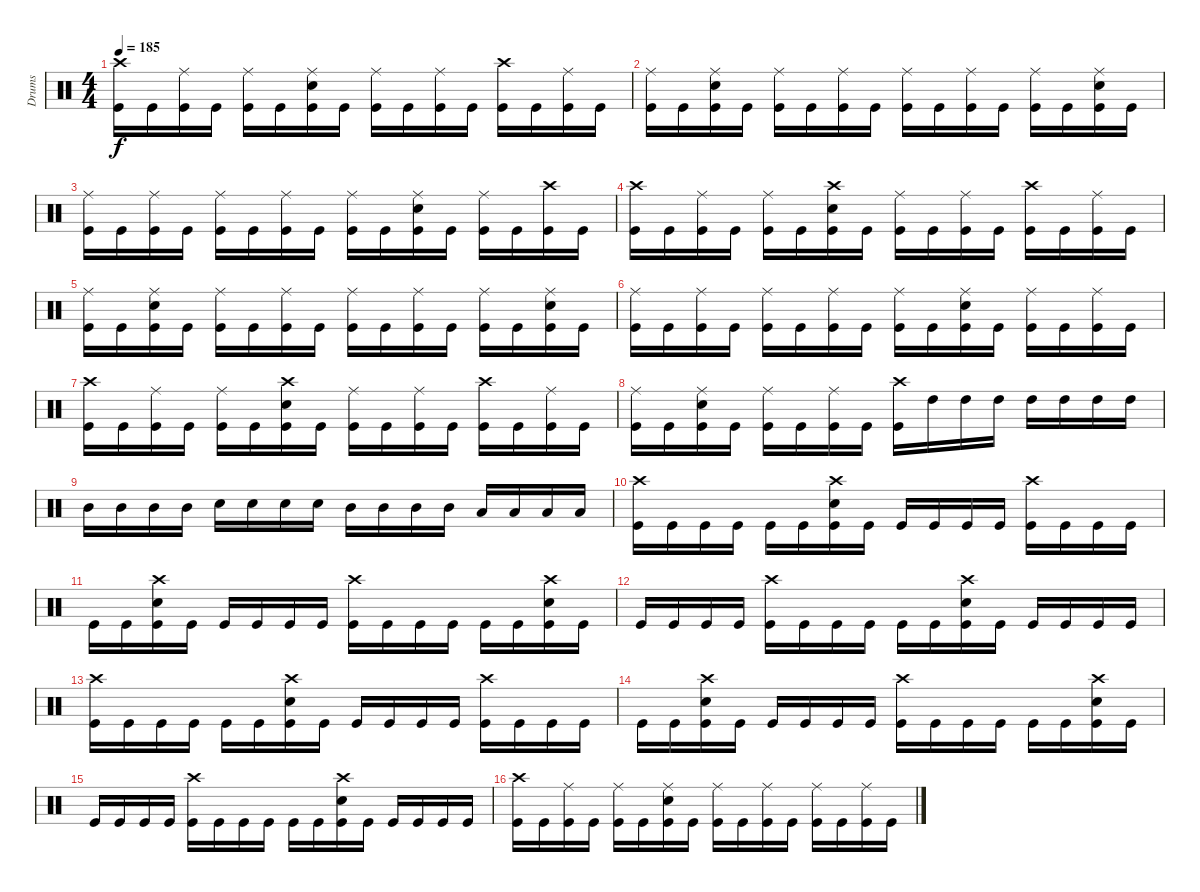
\track ("Drums" "Drums") {instrument percussion}
\staff {score}
\articulation defaults
\ts (4 4)
\tempo 185
\clef neutral
\ks c
("Crash high (hit)" "Kick (hit)").16{dy f} "Kick (hit)".16 ("Ride (middle)" "Kick (hit)").16 "Kick (hit)".16 ("Ride (middle)" "Kick (hit)").16 "Kick (hit)".16 ("Ride (middle)" "Electric Snare (hit)" "Kick (hit)").16 "Kick (hit)".16 ("Ride (middle)" "Kick (hit)").16 "Kick (hit)".16 ("Ride (middle)" "Kick (hit)").16 "Kick (hit)".16 ("Crash high (hit)" "Kick (hit)").16 "Kick (hit)".16 ("Ride (middle)" "Kick (hit)").16 "Kick (hit)".16 |
("Ride (middle)" "Kick (hit)").16 "Kick (hit)".16 ("Ride (middle)" "Electric Snare (hit)" "Kick (hit)").16 "Kick (hit)".16 ("Ride (middle)" "Kick (hit)").16 "Kick (hit)".16 ("Ride (middle)" "Kick (hit)").16 "Kick (hit)".16 ("Ride (middle)" "Kick (hit)").16 "Kick (hit)".16 ("Ride (middle)" "Kick (hit)").16 "Kick (hit)".16 ("Ride (middle)" "Kick (hit)").16 "Kick (hit)".16 ("Ride (middle)" "Electric Snare (hit)" "Kick (hit)").16 "Kick (hit)".16 |
("Ride (middle)" "Kick (hit)").16 "Kick (hit)".16 ("Ride (middle)" "Kick (hit)").16 "Kick (hit)".16 ("Ride (middle)" "Kick (hit)").16 "Kick (hit)".16 ("Ride (middle)" "Kick (hit)").16 "Kick (hit)".16 ("Ride (middle)" "Kick (hit)").16 "Kick (hit)".16 ("Ride (middle)" "Electric Snare (hit)" "Kick (hit)").16 "Kick (hit)".16 ("Ride (middle)" "Kick (hit)").16 "Kick (hit)".16 ("Crash high (hit)" "Kick (hit)").16 "Kick (hit)".16 |
("Crash high (hit)" "Kick (hit)").16 "Kick (hit)".16 ("Ride (middle)" "Kick (hit)").16 "Kick (hit)".16 ("Ride (middle)" "Kick (hit)").16 "Kick (hit)".16 ("Crash high (hit)" "Electric Snare (hit)" "Kick (hit)").16 "Kick (hit)".16 ("Ride (middle)" "Kick (hit)").16 "Kick (hit)".16 ("Ride (middle)" "Kick (hit)").16 "Kick (hit)".16 ("Crash high (hit)" "Kick (hit)").16 "Kick (hit)".16 ("Ride (middle)" "Kick (hit)").16 "Kick (hit)".16 |
("Ride (middle)" "Kick (hit)").16 "Kick (hit)".16 ("Ride (middle)" "Electric Snare (hit)" "Kick (hit)").16 "Kick (hit)".16 ("Ride (middle)" "Kick (hit)").16 "Kick (hit)".16 ("Ride (middle)" "Kick (hit)").16 "Kick (hit)".16 ("Ride (middle)" "Kick (hit)").16 "Kick (hit)".16 ("Ride (middle)" "Kick (hit)").16 "Kick (hit)".16 ("Ride (middle)" "Kick (hit)").16 "Kick (hit)".16 ("Ride (middle)" "Electric Snare (hit)" "Kick (hit)").16 "Kick (hit)".16 |
("Ride (middle)" "Kick (hit)").16 "Kick (hit)".16 ("Ride (middle)" "Kick (hit)").16 "Kick (hit)".16 ("Ride (middle)" "Kick (hit)").16 "Kick (hit)".16 ("Ride (middle)" "Kick (hit)").16 "Kick (hit)".16 ("Ride (middle)" "Kick (hit)").16 "Kick (hit)".16 ("Ride (middle)" "Electric Snare (hit)" "Kick (hit)").16 "Kick (hit)".16 ("Ride (middle)" "Kick (hit)").16 "Kick (hit)".16 ("Ride (middle)" "Kick (hit)").16 "Kick (hit)".16 |
("Crash high (hit)" "Kick (hit)").16 "Kick (hit)".16 ("Ride (middle)" "Kick (hit)").16 "Kick (hit)".16 ("Ride (middle)" "Kick (hit)").16 "Kick (hit)".16 ("Crash high (hit)" "Electric Snare (hit)" "Kick (hit)").16 "Kick (hit)".16 ("Ride (middle)" "Kick (hit)").16 "Kick (hit)".16 ("Ride (middle)" "Kick (hit)").16 "Kick (hit)".16 ("Crash high (hit)" "Kick (hit)").16 "Kick (hit)".16 ("Ride (middle)" "Kick (hit)").16 "Kick (hit)".16 |
("Ride (middle)" "Kick (hit)").16 "Kick (hit)".16 ("Ride (middle)" "Electric Snare (hit)" "Kick (hit)").16 "Kick (hit)".16 ("Ride (middle)" "Kick (hit)").16 "Kick (hit)".16 ("Ride (middle)" "Kick (hit)").16 "Kick (hit)".16 ("Crash high (hit)" "Kick (hit)").16 "High Tom (hit)".16 "High Tom (hit)".16 "High Tom (hit)".16 "High Tom (hit)".16 "High Tom (hit)".16 "High Tom (hit)".16 "High Tom (hit)".16 |
"Mid Tom (hit)".16 "Mid Tom (hit)".16 "Mid Tom (hit)".16 "Mid Tom (hit)".16 "Electric Snare (hit)".16 "Electric Snare (hit)".16 "Electric Snare (hit)".16 "Electric Snare (hit)".16 "Mid Tom (hit)".16 "Mid Tom (hit)".16 "Mid Tom (hit)".16 "Mid Tom (hit)".16 "Low Tom (hit)".16 "Low Tom (hit)".16 "Low Tom (hit)".16 "Low Tom (hit)".16 |
("Crash high (hit)" "Kick (hit)").16 "Kick (hit)".16 "Kick (hit)".16 "Kick (hit)".16 "Kick (hit)".16 "Kick (hit)".16 ("Crash high (hit)" "Electric Snare (hit)" "Kick (hit)").16 "Kick (hit)".16 "Kick (hit)".16 "Kick (hit)".16 "Kick (hit)".16 "Kick (hit)".16 ("Crash high (hit)" "Kick (hit)").16 "Kick (hit)".16 "Kick (hit)".16 "Kick (hit)".16 |
"Kick (hit)".16 "Kick (hit)".16 ("Crash high (hit)" "Electric Snare (hit)" "Kick (hit)").16 "Kick (hit)".16 "Kick (hit)".16 "Kick (hit)".16 "Kick (hit)".16 "Kick (hit)".16 ("Crash high (hit)" "Kick (hit)").16 "Kick (hit)".16 "Kick (hit)".16 "Kick (hit)".16 "Kick (hit)".16 "Kick (hit)".16 ("Crash high (hit)" "Electric Snare (hit)" "Kick (hit)").16 "Kick (hit)".16 |
"Kick (hit)".16 "Kick (hit)".16 "Kick (hit)".16 "Kick (hit)".16 ("Crash high (hit)" "Kick (hit)").16 "Kick (hit)".16 "Kick (hit)".16 "Kick (hit)".16 "Kick (hit)".16 "Kick (hit)".16 ("Crash high (hit)" "Electric Snare (hit)" "Kick (hit)").16 "Kick (hit)".16 "Kick (hit)".16 "Kick (hit)".16 "Kick (hit)".16 "Kick (hit)".16 |
("Crash high (hit)" "Kick (hit)").16 "Kick (hit)".16 "Kick (hit)".16 "Kick (hit)".16 "Kick (hit)".16 "Kick (hit)".16 ("Crash high (hit)" "Electric Snare (hit)" "Kick (hit)").16 "Kick (hit)".16 "Kick (hit)".16 "Kick (hit)".16 "Kick (hit)".16 "Kick (hit)".16 ("Crash high (hit)" "Kick (hit)").16 "Kick (hit)".16 "Kick (hit)".16 "Kick (hit)".16 |
"Kick (hit)".16 "Kick (hit)".16 ("Crash high (hit)" "Electric Snare (hit)" "Kick (hit)").16 "Kick (hit)".16 "Kick (hit)".16 "Kick (hit)".16 "Kick (hit)".16 "Kick (hit)".16 ("Crash high (hit)" "Kick (hit)").16 "Kick (hit)".16 "Kick (hit)".16 "Kick (hit)".16 "Kick (hit)".16 "Kick (hit)".16 ("Crash high (hit)" "Electric Snare (hit)" "Kick (hit)").16 "Kick (hit)".16 |
"Kick (hit)".16 "Kick (hit)".16 "Kick (hit)".16 "Kick (hit)".16 ("Crash high (hit)" "Kick (hit)").16 "Kick (hit)".16 "Kick (hit)".16 "Kick (hit)".16 "Kick (hit)".16 "Kick (hit)".16 ("Crash high (hit)" "Electric Snare (hit)" "Kick (hit)").16 "Kick (hit)".16 "Kick (hit)".16 "Kick (hit)".16 "Kick (hit)".16 "Kick (hit)".16 |
("Crash high (hit)" "Kick (hit)").16 "Kick (hit)".16 ("Ride (middle)" "Kick (hit)").16 "Kick (hit)".16 ("Ride (middle)" "Kick (hit)").16 "Kick (hit)".16 ("Ride (middle)" "Electric Snare (hit)" "Kick (hit)").16 "Kick (hit)".16 ("Ride (middle)" "Kick (hit)").16 "Kick (hit)".16 ("Ride (middle)" "Kick (hit)").16 "Kick (hit)".16 ("Ride (middle)" "Kick (hit)").16 "Kick (hit)".16 ("Ride (middle)" "Kick (hit)").16 "Kick (hit)".16
